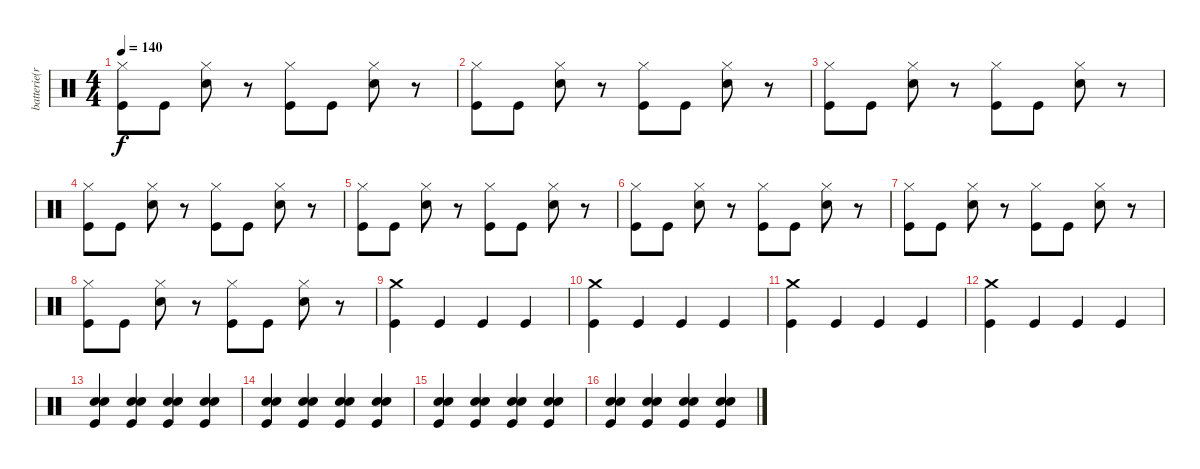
\track ("batterie(ricky)" "batterie(r") {instrument percussion}
\staff {score}
\articulation defaults
\ts (4 4)
\tempo 140
\clef neutral
\ks c
("Hi-Hat (closed)" "Kick (hit)").8{dy f} "Kick (hit)".8 ("Hi-Hat (closed)" "Snare (hit) 2").8 r.8 ("Hi-Hat (closed)" "Kick (hit)").8 "Kick (hit)".8 ("Hi-Hat (closed)" "Snare (hit) 2").8 r.8 |
("Hi-Hat (closed)" "Kick (hit)").8 "Kick (hit)".8 ("Hi-Hat (closed)" "Snare (hit) 2").8 r.8 ("Hi-Hat (closed)" "Kick (hit)").8 "Kick (hit)".8 ("Hi-Hat (closed)" "Snare (hit) 2").8 r.8 |
("Hi-Hat (closed)" "Kick (hit)").8 "Kick (hit)".8 ("Hi-Hat (closed)" "Snare (hit) 2").8 r.8 ("Hi-Hat (closed)" "Kick (hit)").8 "Kick (hit)".8 ("Hi-Hat (closed)" "Snare (hit) 2").8 r.8 |
("Hi-Hat (closed)" "Kick (hit)").8 "Kick (hit)".8 ("Hi-Hat (closed)" "Snare (hit) 2").8 r.8 ("Hi-Hat (closed)" "Kick (hit)").8 "Kick (hit)".8 ("Hi-Hat (closed)" "Snare (hit) 2").8 r.8 |
("Hi-Hat (closed)" "Kick (hit)").8 "Kick (hit)".8 ("Hi-Hat (closed)" "Snare (hit) 2").8 r.8 ("Hi-Hat (closed)" "Kick (hit)").8 "Kick (hit)".8 ("Hi-Hat (closed)" "Snare (hit) 2").8 r.8 |
("Hi-Hat (closed)" "Kick (hit)").8 "Kick (hit)".8 ("Hi-Hat (closed)" "Snare (hit) 2").8 r.8 ("Hi-Hat (closed)" "Kick (hit)").8 "Kick (hit)".8 ("Hi-Hat (closed)" "Snare (hit) 2").8 r.8 |
("Hi-Hat (closed)" "Kick (hit)").8 "Kick (hit)".8 ("Hi-Hat (closed)" "Snare (hit) 2").8 r.8 ("Hi-Hat (closed)" "Kick (hit)").8 "Kick (hit)".8 ("Hi-Hat (closed)" "Snare (hit) 2").8 r.8 |
("Hi-Hat (closed)" "Kick (hit)").8 "Kick (hit)".8 ("Hi-Hat (closed)" "Snare (hit) 2").8 r.8 ("Hi-Hat (closed)" "Kick (hit)").8 "Kick (hit)".8 ("Hi-Hat (closed)" "Snare (hit) 2").8 r.8 |
("Crash medium (hit)" "Kick (hit)").4 "Kick (hit)".4 "Kick (hit)".4 "Kick (hit)".4 |
("Crash medium (hit)" "Kick (hit)").4 "Kick (hit)".4 "Kick (hit)".4 "Kick (hit)".4 |
("Crash medium (hit)" "Kick (hit)").4 "Kick (hit)".4 "Kick (hit)".4 "Kick (hit)".4 |
("Crash medium (hit)" "Kick (hit)").4 "Kick (hit)".4 "Kick (hit)".4 "Kick (hit)".4 |
("Hand Clap (hit)" "Snare (hit) 2" "Kick (hit)").4 ("Hand Clap (hit)" "Snare (hit) 2" "Kick (hit)").4 ("Hand Clap (hit)" "Snare (hit) 2" "Kick (hit)").4 ("Hand Clap (hit)" "Snare (hit) 2" "Kick (hit)").4 |
("Hand Clap (hit)" "Snare (hit) 2" "Kick (hit)").4 ("Hand Clap (hit)" "Snare (hit) 2" "Kick (hit)").4 ("Hand Clap (hit)" "Snare (hit) 2" "Kick (hit)").4 ("Hand Clap (hit)" "Snare (hit) 2" "Kick (hit)").4 |
("Hand Clap (hit)" "Snare (hit) 2" "Kick (hit)").4 ("Hand Clap (hit)" "Snare (hit) 2" "Kick (hit)").4 ("Hand Clap (hit)" "Snare (hit) 2" "Kick (hit)").4 ("Hand Clap (hit)" "Snare (hit) 2" "Kick (hit)").4 |
("Hand Clap (hit)" "Snare (hit) 2" "Kick (hit)").4 ("Hand Clap (hit)" "Snare (hit) 2" "Kick (hit)").4 ("Hand Clap (hit)" "Snare (hit) 2" "Kick (hit)").4 ("Hand Clap (hit)" "Snare (hit) 2" "Kick (hit)").4
